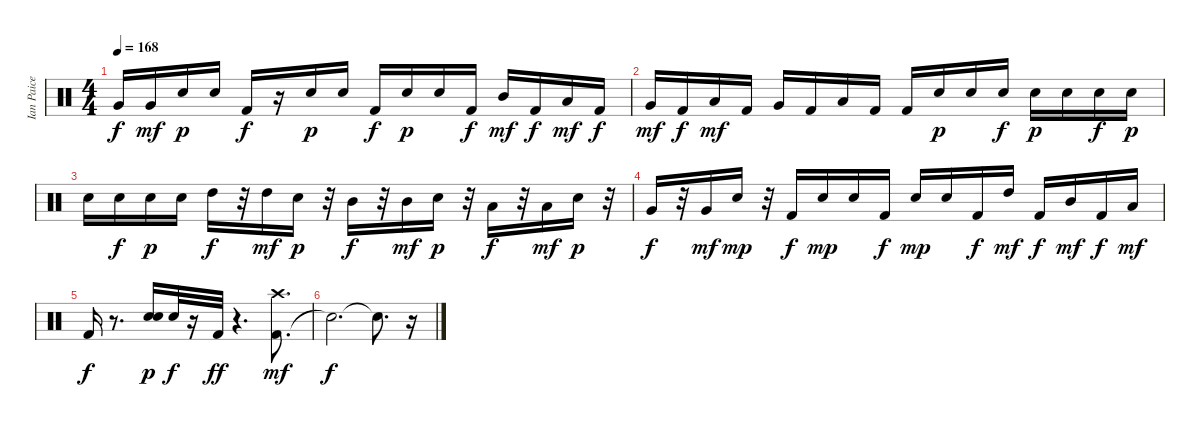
\track ("Ian Paice" "Ian Paice") {instrument percussion}
\staff {score}
\articulation defaults
\ts (4 4)
\tempo 168
\clef neutral
\ks c "Very Low Tom (hit)".16{dy f} "Very Low Tom (hit)".16{dy mf} "Electric Snare (hit)".16{dy p} "Electric Snare (hit)".16 "Kick (hit) 2".16{dy f}
r.16 "Electric Snare (hit)".16{dy p} "Electric Snare (hit)".16 "Kick (hit) 2".16{dy f} "Electric Snare (hit)".16{dy p} "Electric Snare (hit)".16 "Kick (hit) 2".16{dy f} "Mid Tom (hit)".16{dy mf} "Kick (hit) 2".16{dy f} "Low Tom (hit)".16{dy mf} "Kick (hit) 2".16{dy f} |
"Very Low Tom (hit)".16{dy mf} "Kick (hit) 2".16{dy f} "Low Tom (hit)".16{dy mf} "Kick (hit) 2".16 "Very Low Tom (hit)".16 "Kick (hit) 2".16 "Low Floor Tom (hit)".16 "Kick (hit) 2".16 "Kick (hit) 2".16 "Electric Snare (hit)".16{dy p} "Electric Snare (hit)".16 "Electric Snare (hit)".16{dy f} "Electric Snare (hit)".16{dy p} "Electric Snare (hit)".16 "Electric Snare (hit)".16{dy f} "Electric Snare (hit)".16{dy p} |
"Electric Snare (hit)".16 "Electric Snare (hit)".16{dy f} "Electric Snare (hit)".16{dy p} "Electric Snare (hit)".16 "High Tom (hit)".16{dy f} r.32 "High Tom (hit)".16{dy mf} "Electric Snare (hit)".16{dy p} r.32 "Mid Tom (hit)".16{dy f} r.32 "Mid Tom (hit)".16{dy mf} "Electric Snare (hit)".16{dy p} r.32 "Low Tom (hit)".16{dy f} r.32 "Low Tom (hit)".16{dy mf} "Electric Snare (hit)".16{dy p} r.32 |
"Very Low Tom (hit)".16{dy f} r.32 "Very Low Tom (hit)".16{dy mf} "Electric Snare (hit)".16{dy mp} r.32 "Kick (hit) 2".16{dy f} "Electric Snare (hit)".16{dy mp} "Electric Snare (hit)".16 "Kick (hit) 2".16{dy f} "Electric Snare (hit)".16{dy mp} "Electric Snare (hit)".16 "Kick (hit) 2".16{dy f} "High Tom (hit)".16{dy mf} "Kick (hit) 2".16{dy f} "Mid Tom (hit)".16{dy mf} "Kick (hit) 2".16{dy f} "Low Tom (hit)".16{dy mf} |
"Kick (hit) 2".16{dy f} r.8{d} ("Electric Snare (hit)" "Electric Snare (hit)").16{dy p} "Electric Snare (hit)".32{dy f} r.16 "Kick (hit) 2".32{dy ff} r.4{d} ("Kick (hit) 2" "Crash high (hit)").8{d dy mf} |
"Snare (hit)"{t}.2{d dy f} "Snare (hit)"{t}.8{d} r.16
